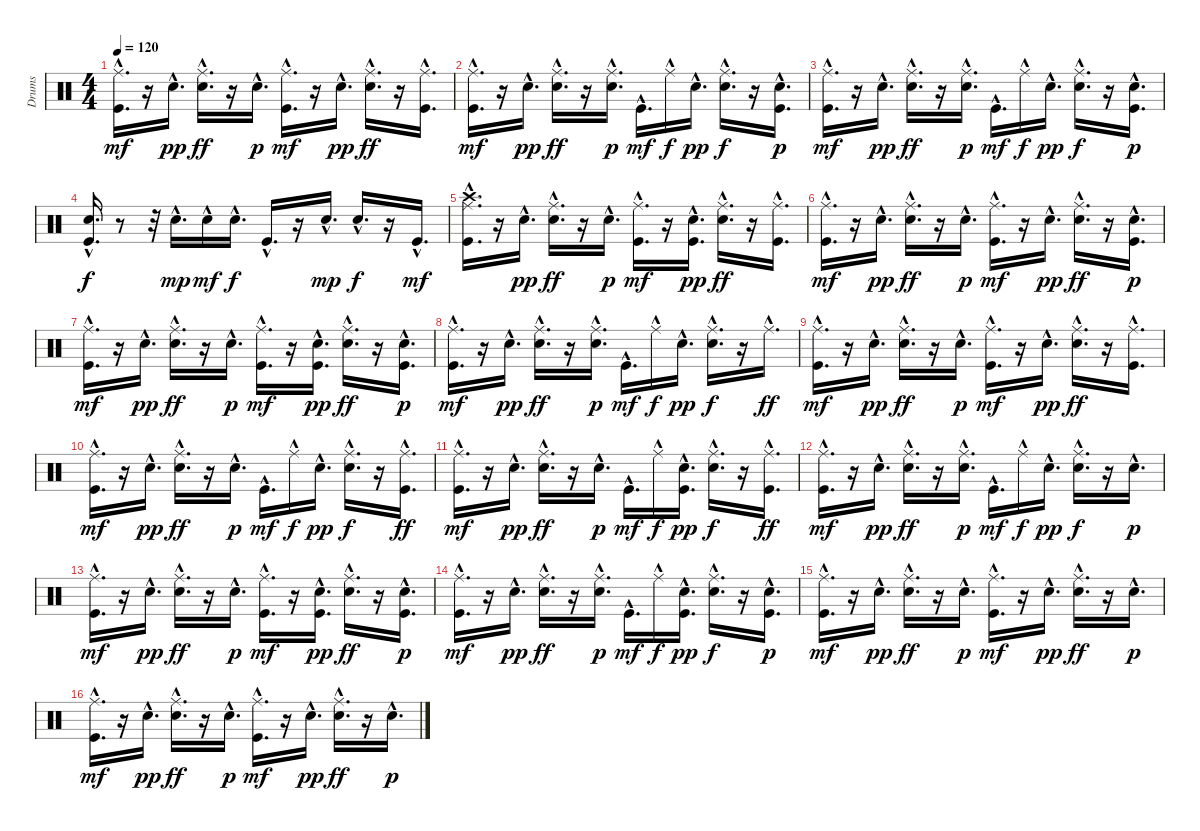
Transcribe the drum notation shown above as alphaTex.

\track ("Drums" "Drums") {instrument percussion}
\staff {score}
\articulation defaults
\ts (4 4)
\tempo 120
\clef neutral
\ks c
("Kick (hit)"{hac} "Ride (middle)"{hac}).16{d dy mf} r.16 "Snare (hit) 2"{hac}.16{d dy pp} ("Snare (hit) 2"{hac} "Ride (middle)"{hac}).16{d dy ff} r.16 "Snare (hit) 2"{hac}.16{d dy p} ("Kick (hit)"{hac} "Ride (middle)"{hac}).16{d dy mf} r.16 "Snare (hit) 2"{hac}.16{d dy pp} ("Snare (hit) 2"{hac} "Ride (middle)"{hac}).16{d dy ff} r.16 ("Kick (hit)"{hac} "Ride (middle)"{hac}).16{d} |
("Kick (hit)"{hac} "Ride (middle)"{hac}).16{d dy mf} r.16 "Snare (hit) 2"{hac}.16{d dy pp} ("Snare (hit) 2"{hac} "Ride (middle)"{hac}).16{d dy ff} r.16 ("Snare (hit) 2"{hac} "Ride (middle)"{hac}).16{d dy p} "Kick (hit)"{hac}.16{d dy mf} "Ride (middle)"{hac}.16{dy f} "Snare (hit) 2"{hac}.16{d dy pp} ("Snare (hit) 2"{hac} "Ride (middle)"{hac}).16{d dy f} r.16 ("Kick (hit)"{hac} "Snare (hit) 2"{hac}).16{d dy p} |
("Kick (hit)"{hac} "Ride (middle)"{hac}).16{d dy mf} r.16 "Snare (hit) 2"{hac}.16{d dy pp} ("Snare (hit) 2"{hac} "Ride (middle)"{hac}).16{d dy ff} r.16 ("Snare (hit) 2"{hac} "Ride (middle)"{hac}).16{d dy p} "Kick (hit)"{hac}.16{d dy mf} "Ride (middle)"{hac}.16{dy f} "Snare (hit) 2"{hac}.16{d dy pp} ("Snare (hit) 2"{hac} "Ride (middle)"{hac}).16{d dy f} r.16 ("Kick (hit)"{hac} "Snare (hit) 2"{hac}).16{d dy p} |
("Kick (hit)"{hac} "Snare (hit) 2"{hac}).16{d dy f} r.8 r.32 "Snare (hit) 2"{hac}.16{d dy mp} "Snare (hit) 2"{hac}.16{dy mf} "Snare (hit) 2"{hac}.16{d dy f} "Kick (hit)"{hac}.16{d} r.16 "Snare (hit) 2"{hac}.16{d dy mp} "Snare (hit) 2"{hac}.16{d dy f} r.16 "Kick (hit)"{hac}.16{d dy mf} |
("Kick (hit)"{hac} "Ride (middle)"{hac} "Crash high (hit)"{hac}).16{d} r.16 "Snare (hit) 2"{hac}.16{d dy pp} ("Snare (hit) 2"{hac} "Ride (middle)"{hac}).16{d dy ff} r.16 "Snare (hit) 2"{hac}.16{d dy p} ("Kick (hit)"{hac} "Ride (middle)"{hac}).16{d dy mf} r.16 ("Kick (hit)"{hac} "Snare (hit) 2"{hac}).16{d dy pp} ("Snare (hit) 2"{hac} "Ride (middle)"{hac}).16{d dy ff} r.16 ("Kick (hit)"{hac} "Ride (middle)"{hac}).16{d} |
("Kick (hit)"{hac} "Ride (middle)"{hac}).16{d dy mf} r.16 "Snare (hit) 2"{hac}.16{d dy pp} ("Snare (hit) 2"{hac} "Ride (middle)"{hac}).16{d dy ff} r.16 "Snare (hit) 2"{hac}.16{d dy p} ("Kick (hit)"{hac} "Ride (middle)"{hac}).16{d dy mf} r.16 "Snare (hit) 2"{hac}.16{d dy pp} ("Snare (hit) 2"{hac} "Ride (middle)"{hac}).16{d dy ff} r.16 ("Kick (hit)"{hac} "Snare (hit) 2"{hac}).16{d dy p} |
("Kick (hit)"{hac} "Ride (middle)"{hac}).16{d dy mf} r.16 "Snare (hit) 2"{hac}.16{d dy pp} ("Snare (hit) 2"{hac} "Ride (middle)"{hac}).16{d dy ff} r.16 "Snare (hit) 2"{hac}.16{d dy p} ("Kick (hit)"{hac} "Ride (middle)"{hac}).16{d dy mf} r.16 ("Kick (hit)"{hac} "Snare (hit) 2"{hac}).16{d dy pp} ("Snare (hit) 2"{hac} "Ride (middle)"{hac}).16{d dy ff} r.16 ("Kick (hit)"{hac} "Snare (hit) 2"{hac}).16{d dy p} |
("Kick (hit)"{hac} "Ride (middle)"{hac}).16{d dy mf} r.16 "Snare (hit) 2"{hac}.16{d dy pp} ("Snare (hit) 2"{hac} "Ride (middle)"{hac}).16{d dy ff} r.16 ("Snare (hit) 2"{hac} "Ride (middle)"{hac}).16{d dy p} "Kick (hit)"{hac}.16{d dy mf} "Ride (middle)"{hac}.16{dy f} "Snare (hit) 2"{hac}.16{d dy pp} ("Snare (hit) 2"{hac} "Ride (middle)"{hac}).16{d dy f} r.16 "Ride (middle)"{hac}.16{d dy ff} |
("Kick (hit)"{hac} "Ride (middle)"{hac}).16{d dy mf} r.16 "Snare (hit) 2"{hac}.16{d dy pp} ("Snare (hit) 2"{hac} "Ride (middle)"{hac}).16{d dy ff} r.16 "Snare (hit) 2"{hac}.16{d dy p} ("Kick (hit)"{hac} "Ride (middle)"{hac}).16{d dy mf} r.16 "Snare (hit) 2"{hac}.16{d dy pp} ("Snare (hit) 2"{hac} "Ride (middle)"{hac}).16{d dy ff} r.16 ("Kick (hit)"{hac} "Ride (middle)"{hac}).16{d} |
("Kick (hit)"{hac} "Ride (middle)"{hac}).16{d dy mf} r.16 "Snare (hit) 2"{hac}.16{d dy pp} ("Snare (hit) 2"{hac} "Ride (middle)"{hac}).16{d dy ff} r.16 "Snare (hit) 2"{hac}.16{d dy p} "Kick (hit)"{hac}.16{d dy mf} "Ride (middle)"{hac}.16{dy f} "Snare (hit) 2"{hac}.16{d dy pp} ("Snare (hit) 2"{hac} "Ride (middle)"{hac}).16{d dy f} r.16 ("Kick (hit)"{hac} "Ride (middle)"{hac}).16{d dy ff} |
("Kick (hit)"{hac} "Ride (middle)"{hac}).16{d dy mf} r.16 "Snare (hit) 2"{hac}.16{d dy pp} ("Snare (hit) 2"{hac} "Ride (middle)"{hac}).16{d dy ff} r.16 "Snare (hit) 2"{hac}.16{d dy p} "Kick (hit)"{hac}.16{d dy mf} "Ride (middle)"{hac}.16{dy f} ("Kick (hit)"{hac} "Snare (hit) 2"{hac}).16{d dy pp} ("Snare (hit) 2"{hac} "Ride (middle)"{hac}).16{d dy f} r.16 ("Kick (hit)"{hac} "Ride (middle)"{hac}).16{d dy ff} |
("Kick (hit)"{hac} "Ride (middle)"{hac}).16{d dy mf} r.16 "Snare (hit) 2"{hac}.16{d dy pp} ("Snare (hit) 2"{hac} "Ride (middle)"{hac}).16{d dy ff} r.16 ("Snare (hit) 2"{hac} "Ride (middle)"{hac}).16{d dy p} "Kick (hit)"{hac}.16{d dy mf} "Ride (middle)"{hac}.16{dy f} "Snare (hit) 2"{hac}.16{d dy pp} ("Snare (hit) 2"{hac} "Ride (middle)"{hac}).16{d dy f} r.16 "Snare (hit) 2"{hac}.16{d dy p} |
("Kick (hit)"{hac} "Ride (middle)"{hac}).16{d dy mf} r.16 "Snare (hit) 2"{hac}.16{d dy pp} ("Snare (hit) 2"{hac} "Ride (middle)"{hac}).16{d dy ff} r.16 "Snare (hit) 2"{hac}.16{d dy p} ("Kick (hit)"{hac} "Ride (middle)"{hac}).16{d dy mf} r.16 ("Kick (hit)"{hac} "Snare (hit) 2"{hac}).16{d dy pp} ("Snare (hit) 2"{hac} "Ride (middle)"{hac}).16{d dy ff} r.16 ("Kick (hit)"{hac} "Snare (hit) 2"{hac}).16{d dy p} |
("Kick (hit)"{hac} "Ride (middle)"{hac}).16{d dy mf} r.16 "Snare (hit) 2"{hac}.16{d dy pp} ("Snare (hit) 2"{hac} "Ride (middle)"{hac}).16{d dy ff} r.16 ("Snare (hit) 2"{hac} "Ride (middle)"{hac}).16{d dy p} "Kick (hit)"{hac}.16{d dy mf} "Ride (middle)"{hac}.16{dy f} ("Kick (hit)"{hac} "Snare (hit) 2"{hac}).16{d dy pp} ("Snare (hit) 2"{hac} "Ride (middle)"{hac}).16{d dy f} r.16 ("Kick (hit)"{hac} "Snare (hit) 2"{hac}).16{d dy p} |
("Kick (hit)"{hac} "Ride (middle)"{hac}).16{d dy mf} r.16 "Snare (hit) 2"{hac}.16{d dy pp} ("Snare (hit) 2"{hac} "Ride (middle)"{hac}).16{d dy ff} r.16 "Snare (hit) 2"{hac}.16{d dy p} ("Kick (hit)"{hac} "Ride (middle)"{hac}).16{d dy mf} r.16 "Snare (hit) 2"{hac}.16{d dy pp} ("Snare (hit) 2"{hac} "Ride (middle)"{hac}).16{d dy ff} r.16 "Snare (hit) 2"{hac}.16{d dy p} |
("Kick (hit)"{hac} "Ride (middle)"{hac}).16{d dy mf} r.16 "Snare (hit) 2"{hac}.16{d dy pp} ("Snare (hit) 2"{hac} "Ride (middle)"{hac}).16{d dy ff} r.16 "Snare (hit) 2"{hac}.16{d dy p} ("Kick (hit)"{hac} "Ride (middle)"{hac}).16{d dy mf} r.16 "Snare (hit) 2"{hac}.16{d dy pp} ("Snare (hit) 2"{hac} "Ride (middle)"{hac}).16{d dy ff} r.16 "Snare (hit) 2"{hac}.16{d dy p}
